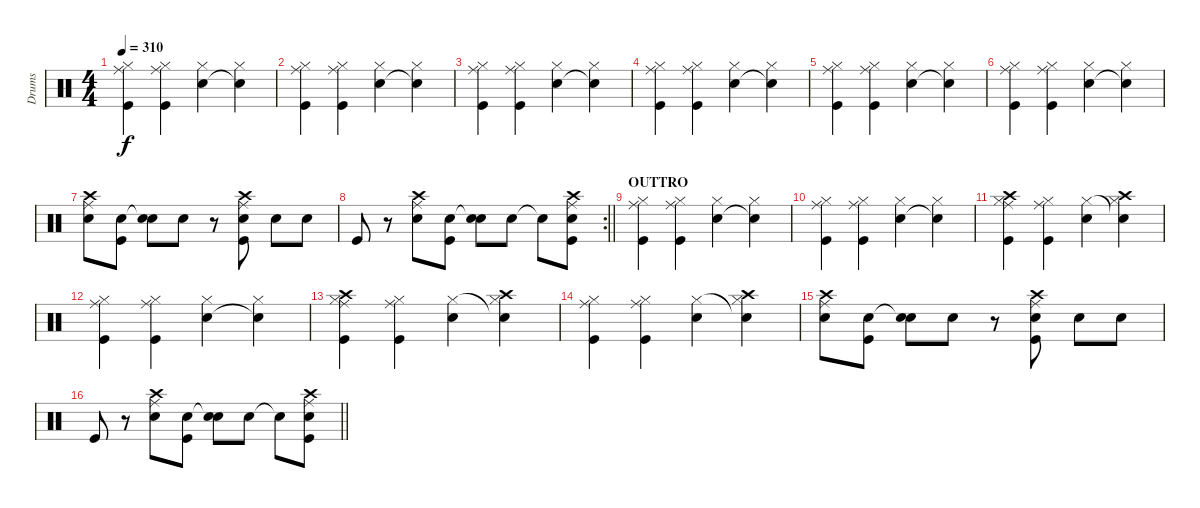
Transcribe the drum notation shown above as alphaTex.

\track ("Drums" "Drums") {instrument percussion}
\staff {score}
\articulation defaults
\ts (4 4)
\tempo 310
\clef neutral
\ks c
("Ride (middle)" "Hi-Hat (closed)" "Kick (hit)").4{dy f} ("Ride (middle)" "Hi-Hat (closed)" "Kick (hit)").4 ("Snare (hit) 2" "Hi-Hat (closed)").4 ("Snare (hit)"{t} "Hi-Hat (closed)").4 |
("Ride (middle)" "Hi-Hat (closed)" "Kick (hit)").4 ("Ride (middle)" "Hi-Hat (closed)" "Kick (hit)").4 ("Snare (hit) 2" "Hi-Hat (closed)").4 ("Snare (hit)"{t} "Hi-Hat (closed)").4 |
("Ride (middle)" "Hi-Hat (closed)" "Kick (hit)").4 ("Ride (middle)" "Hi-Hat (closed)" "Kick (hit)").4 ("Snare (hit) 2" "Hi-Hat (closed)").4 ("Snare (hit)"{t} "Hi-Hat (closed)").4 |
("Ride (middle)" "Hi-Hat (closed)" "Kick (hit)").4 ("Ride (middle)" "Hi-Hat (closed)" "Kick (hit)").4 ("Snare (hit) 2" "Hi-Hat (closed)").4 ("Snare (hit)"{t} "Hi-Hat (closed)").4 |
("Ride (middle)" "Hi-Hat (closed)" "Kick (hit)").4 ("Ride (middle)" "Hi-Hat (closed)" "Kick (hit)").4 ("Snare (hit) 2" "Hi-Hat (closed)").4 ("Snare (hit)"{t} "Hi-Hat (closed)").4 |
("Ride (middle)" "Hi-Hat (closed)" "Kick (hit)").4 ("Ride (middle)" "Hi-Hat (closed)" "Kick (hit)").4 ("Snare (hit) 2" "Hi-Hat (closed)").4 ("Snare (hit)"{t} "Hi-Hat (closed)").4 |
("Crash high (hit)" "Snare (hit) 2" "Ride (middle)").8 ("Snare (hit) 2" "Kick (hit)").8 ("Snare (hit)"{t} "Snare (hit) 2").8 "Snare (hit) 2".8 r.8 ("Crash high (hit)" "Snare (hit) 2" "Ride (middle)" "Kick (hit)").8 "Snare (hit) 2".8 "Snare (hit) 2".8 |
\rc 2
\barLineRight lightlight "Kick (hit)".8
r.8 ("Crash high (hit)" "Snare (hit) 2" "Ride (middle)").8 ("Snare (hit) 2" "Kick (hit)").8 ("Snare (hit)"{t} "Snare (hit) 2").8 "Snare (hit) 2".8 "Snare (hit)"{t}.8 ("Crash high (hit)" "Snare (hit) 2" "Ride (middle)" "Kick (hit)").8 |
\section ("" "OUTTRO")
("Ride (middle)" "Hi-Hat (closed)" "Kick (hit)").4 ("Ride (middle)" "Hi-Hat (closed)" "Kick (hit)").4 ("Snare (hit) 2" "Hi-Hat (closed)").4 ("Snare (hit)"{t} "Hi-Hat (closed)").4 |
("Ride (middle)" "Hi-Hat (closed)" "Kick (hit)").4 ("Ride (middle)" "Hi-Hat (closed)" "Kick (hit)").4 ("Snare (hit) 2" "Hi-Hat (closed)").4 ("Snare (hit)"{t} "Hi-Hat (closed)").4 |
("Crash high (hit)" "Ride (middle)" "Hi-Hat (closed)" "Kick (hit)").4 ("Ride (middle)" "Hi-Hat (closed)" "Kick (hit)").4 ("Snare (hit) 2" "Hi-Hat (closed)").4 ("Crash high (hit)" "Snare (hit)"{t} "Hi-Hat (closed)").4 |
("Ride (middle)" "Hi-Hat (closed)" "Kick (hit)").4 ("Ride (middle)" "Hi-Hat (closed)" "Kick (hit)").4 ("Snare (hit) 2" "Hi-Hat (closed)").4 ("Snare (hit)"{t} "Hi-Hat (closed)").4 |
("Crash high (hit)" "Ride (middle)" "Hi-Hat (closed)" "Kick (hit)").4 ("Ride (middle)" "Hi-Hat (closed)" "Kick (hit)").4 ("Snare (hit) 2" "Hi-Hat (closed)").4 ("Crash high (hit)" "Snare (hit)"{t} "Hi-Hat (closed)").4 |
("Ride (middle)" "Hi-Hat (closed)" "Kick (hit)").4 ("Ride (middle)" "Hi-Hat (closed)" "Kick (hit)").4 ("Snare (hit) 2" "Hi-Hat (closed)").4 ("Crash high (hit)" "Snare (hit)"{t} "Hi-Hat (closed)").4 |
("Crash high (hit)" "Snare (hit) 2" "Ride (middle)").8 ("Snare (hit) 2" "Kick (hit)").8 ("Snare (hit)"{t} "Snare (hit) 2").8 "Snare (hit) 2".8 r.8 ("Crash high (hit)" "Snare (hit) 2" "Ride (middle)" "Kick (hit)").8 "Snare (hit) 2".8 "Snare (hit) 2".8 |
\barLineRight lightlight "Kick (hit)".8
r.8 ("Crash high (hit)" "Snare (hit) 2" "Ride (middle)").8 ("Snare (hit) 2" "Kick (hit)").8 ("Snare (hit)"{t} "Snare (hit) 2").8 "Snare (hit) 2".8 "Snare (hit)"{t}.8 ("Crash high (hit)" "Snare (hit) 2" "Ride (middle)" "Kick (hit)").8
